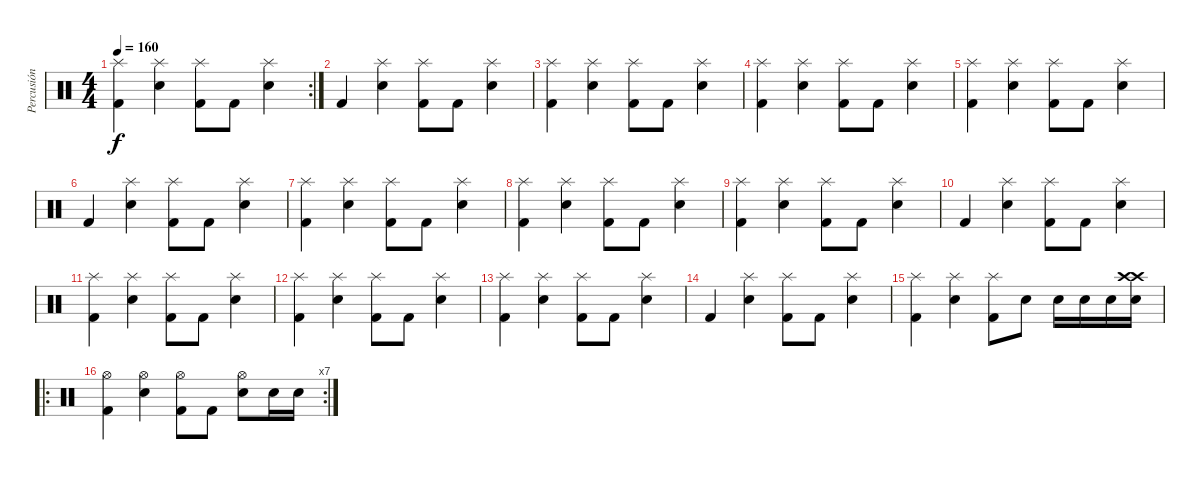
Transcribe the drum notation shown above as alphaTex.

\track ("Percusión" "Percusión") {instrument percussion}
\staff {score}
\articulation defaults
\rc 2
\ts (4 4)
\tempo 160
\clef neutral
\ks c
("Splash (hit)" "Kick (hit) 2").4{dy f} ("Splash (hit)" "Snare (hit) 2").4 ("Splash (hit)" "Kick (hit) 2").8 "Kick (hit) 2".8 ("Splash (hit)" "Snare (hit) 2").4 |
"Kick (hit) 2".4 ("Splash (hit)" "Snare (hit) 2").4 ("Splash (hit)" "Kick (hit) 2").8 "Kick (hit) 2".8 ("Splash (hit)" "Snare (hit) 2").4 |
("Splash (hit)" "Kick (hit) 2").4 ("Splash (hit)" "Snare (hit) 2").4 ("Splash (hit)" "Kick (hit) 2").8 "Kick (hit) 2".8 ("Splash (hit)" "Snare (hit) 2").4 |
("Splash (hit)" "Kick (hit) 2").4 ("Splash (hit)" "Snare (hit) 2").4 ("Splash (hit)" "Kick (hit) 2").8 "Kick (hit) 2".8 ("Splash (hit)" "Snare (hit) 2").4 |
("Splash (hit)" "Kick (hit) 2").4 ("Splash (hit)" "Snare (hit) 2").4 ("Splash (hit)" "Kick (hit) 2").8 "Kick (hit) 2".8 ("Splash (hit)" "Snare (hit) 2").4 |
"Kick (hit) 2".4 ("Splash (hit)" "Snare (hit) 2").4 ("Splash (hit)" "Kick (hit) 2").8 "Kick (hit) 2".8 ("Splash (hit)" "Snare (hit) 2").4 |
("Splash (hit)" "Kick (hit) 2").4 ("Splash (hit)" "Snare (hit) 2").4 ("Splash (hit)" "Kick (hit) 2").8 "Kick (hit) 2".8 ("Splash (hit)" "Snare (hit) 2").4 |
("Splash (hit)" "Kick (hit) 2").4 ("Splash (hit)" "Snare (hit) 2").4 ("Splash (hit)" "Kick (hit) 2").8 "Kick (hit) 2".8 ("Splash (hit)" "Snare (hit) 2").4 |
("Splash (hit)" "Kick (hit) 2").4 ("Splash (hit)" "Snare (hit) 2").4 ("Splash (hit)" "Kick (hit) 2").8 "Kick (hit) 2".8 ("Splash (hit)" "Snare (hit) 2").4 |
"Kick (hit) 2".4 ("Splash (hit)" "Snare (hit) 2").4 ("Splash (hit)" "Kick (hit) 2").8 "Kick (hit) 2".8 ("Splash (hit)" "Snare (hit) 2").4 |
("Splash (hit)" "Kick (hit) 2").4 ("Splash (hit)" "Snare (hit) 2").4 ("Splash (hit)" "Kick (hit) 2").8 "Kick (hit) 2".8 ("Splash (hit)" "Snare (hit) 2").4 |
("Splash (hit)" "Kick (hit) 2").4 ("Splash (hit)" "Snare (hit) 2").4 ("Splash (hit)" "Kick (hit) 2").8 "Kick (hit) 2".8 ("Splash (hit)" "Snare (hit) 2").4 |
("Splash (hit)" "Kick (hit) 2").4 ("Splash (hit)" "Snare (hit) 2").4 ("Splash (hit)" "Kick (hit) 2").8 "Kick (hit) 2".8 ("Splash (hit)" "Snare (hit) 2").4 |
"Kick (hit) 2".4 ("Splash (hit)" "Snare (hit) 2").4 ("Splash (hit)" "Kick (hit) 2").8 "Kick (hit) 2".8 ("Splash (hit)" "Snare (hit) 2").4 |
("Splash (hit)" "Kick (hit) 2").4 ("Splash (hit)" "Snare (hit) 2").4 ("Splash (hit)" "Kick (hit) 2").8 "Snare (hit) 2".8 "Snare (hit) 2".16 "Snare (hit) 2".16 "Snare (hit) 2".16 ("Crash high (hit)" "Crash high (hit)" "Snare (hit) 2").16 |
\ro
\rc 7
("Hi-Hat (open)" "Kick (hit) 2").4 ("Hi-Hat (open)" "Snare (hit) 2").4 ("Hi-Hat (open)" "Kick (hit) 2").8 "Kick (hit) 2".8 ("Hi-Hat (open)" "Snare (hit) 2").8 "Snare (hit) 2".16 "Snare (hit) 2".16
